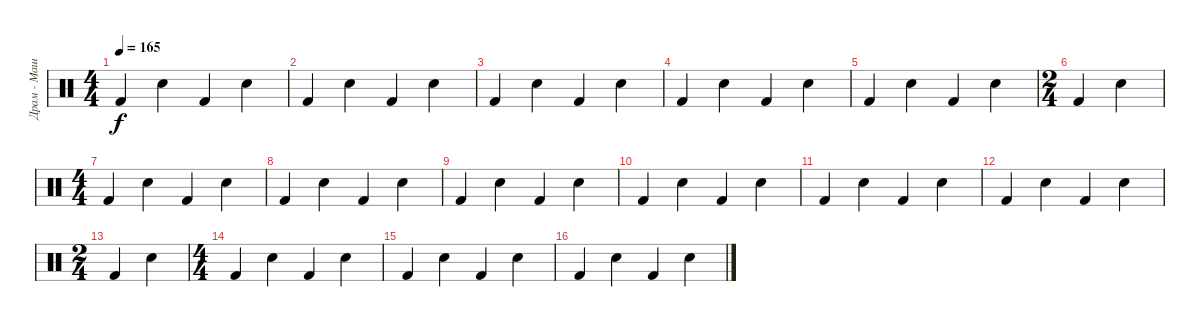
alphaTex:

\track ("Драм - Машина" "Драм - Маш") {instrument percussion}
\staff {score}
\articulation defaults
\ts (4 4)
\tempo 165
\clef neutral
\ks c "Kick (hit) 2".4{dy f} "Snare (hit) 2".4 "Kick (hit) 2".4 "Snare (hit) 2".4
|
"Kick (hit) 2".4 "Snare (hit) 2".4 "Kick (hit) 2".4 "Snare (hit) 2".4 |
"Kick (hit) 2".4 "Snare (hit) 2".4 "Kick (hit) 2".4 "Snare (hit) 2".4 |
"Kick (hit) 2".4 "Snare (hit) 2".4 "Kick (hit) 2".4 "Snare (hit) 2".4 |
"Kick (hit) 2".4 "Snare (hit) 2".4 "Kick (hit) 2".4 "Snare (hit) 2".4 |
\ts (2 4)
"Kick (hit) 2".4 "Snare (hit) 2".4 |
\ts (4 4)
"Kick (hit) 2".4 "Snare (hit) 2".4 "Kick (hit) 2".4 "Snare (hit) 2".4 |
"Kick (hit) 2".4 "Snare (hit) 2".4 "Kick (hit) 2".4 "Snare (hit) 2".4 |
"Kick (hit) 2".4 "Snare (hit) 2".4 "Kick (hit) 2".4 "Snare (hit) 2".4 |
"Kick (hit) 2".4 "Snare (hit) 2".4 "Kick (hit) 2".4 "Snare (hit) 2".4 |
"Kick (hit) 2".4 "Snare (hit) 2".4 "Kick (hit) 2".4 "Snare (hit) 2".4 |
"Kick (hit) 2".4 "Snare (hit) 2".4 "Kick (hit) 2".4 "Snare (hit) 2".4 |
\ts (2 4)
"Kick (hit) 2".4 "Snare (hit) 2".4 |
\ts (4 4)
"Kick (hit) 2".4 "Snare (hit) 2".4 "Kick (hit) 2".4 "Snare (hit) 2".4 |
"Kick (hit) 2".4 "Snare (hit) 2".4 "Kick (hit) 2".4 "Snare (hit) 2".4 |
"Kick (hit) 2".4 "Snare (hit) 2".4 "Kick (hit) 2".4 "Snare (hit) 2".4
